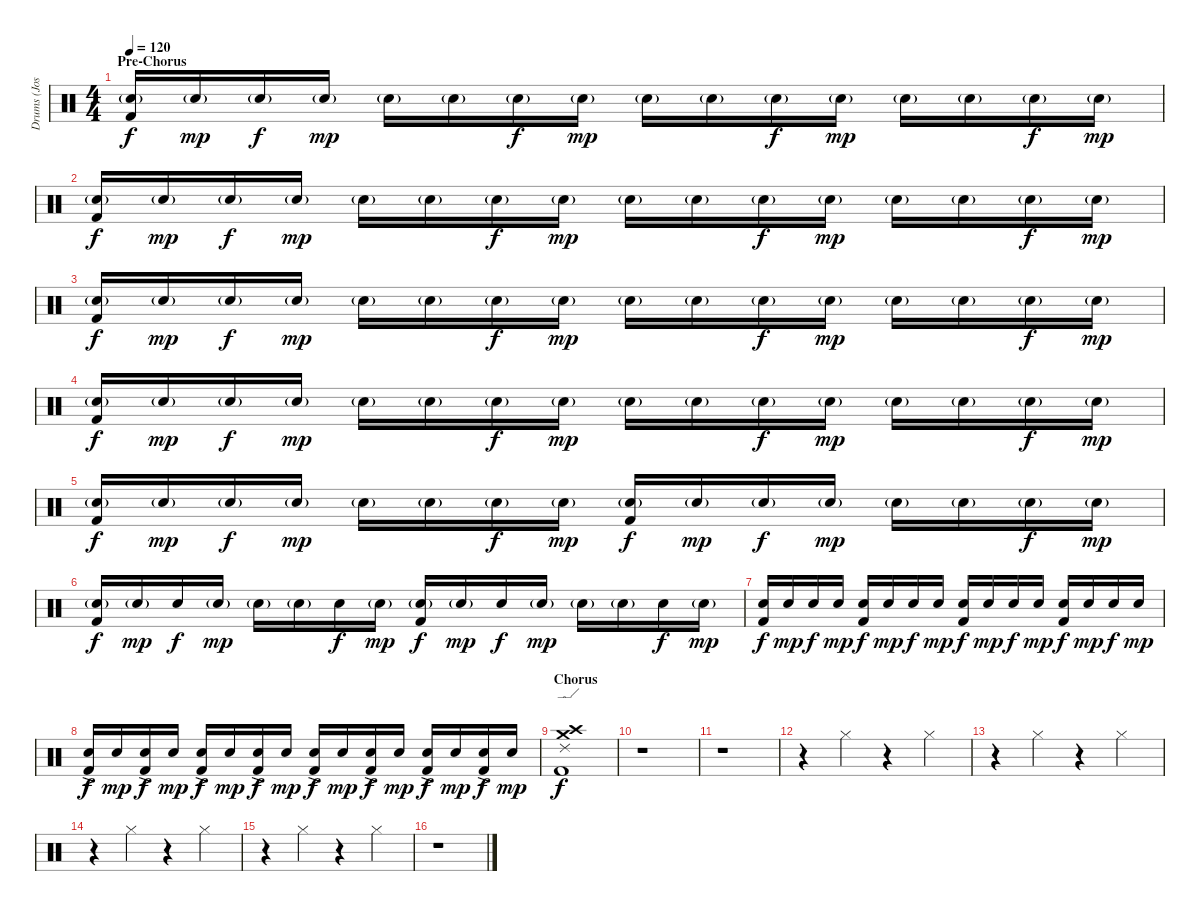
\track ("Drums (Josh Dun)" "Drums (Jos") {instrument percussion}
\staff {score}
\articulation defaults
\ts (4 4)
\section ("" "Pre-Chorus")
\tempo 120
\clef neutral
\ks c
("Snare (hit) 2"{g} "Kick (hit) 2").16{dy f} "Snare (hit) 2"{g}.16{dy mp} "Electric Snare (hit)"{g}.16{dy f} "Snare (hit) 2"{g}.16{dy mp} "Snare (hit) 2"{g}.16 "Snare (hit) 2"{g}.16 "Electric Snare (hit)"{g}.16{dy f} "Snare (hit) 2"{g}.16{dy mp} "Snare (hit) 2"{g}.16 "Snare (hit) 2"{g}.16 "Electric Snare (hit)"{g}.16{dy f} "Snare (hit) 2"{g}.16{dy mp} "Snare (hit) 2"{g}.16 "Snare (hit) 2"{g}.16 "Electric Snare (hit)"{g}.16{dy f} "Snare (hit) 2"{g}.16{dy mp} |
("Snare (hit) 2"{g} "Kick (hit) 2").16{dy f} "Snare (hit) 2"{g}.16{dy mp} "Electric Snare (hit)"{g}.16{dy f} "Snare (hit) 2"{g}.16{dy mp} "Snare (hit) 2"{g}.16 "Snare (hit) 2"{g}.16 "Electric Snare (hit)"{g}.16{dy f} "Snare (hit) 2"{g}.16{dy mp} "Snare (hit) 2"{g}.16 "Snare (hit) 2"{g}.16 "Electric Snare (hit)"{g}.16{dy f} "Snare (hit) 2"{g}.16{dy mp} "Snare (hit) 2"{g}.16 "Snare (hit) 2"{g}.16 "Electric Snare (hit)"{g}.16{dy f} "Snare (hit) 2"{g}.16{dy mp} |
("Snare (hit) 2"{g} "Kick (hit) 2").16{dy f} "Snare (hit) 2"{g}.16{dy mp} "Electric Snare (hit)"{g}.16{dy f} "Snare (hit) 2"{g}.16{dy mp} "Snare (hit) 2"{g}.16 "Snare (hit) 2"{g}.16 "Electric Snare (hit)"{g}.16{dy f} "Snare (hit) 2"{g}.16{dy mp} "Snare (hit) 2"{g}.16 "Snare (hit) 2"{g}.16 "Electric Snare (hit)"{g}.16{dy f} "Snare (hit) 2"{g}.16{dy mp} "Snare (hit) 2"{g}.16 "Snare (hit) 2"{g}.16 "Electric Snare (hit)"{g}.16{dy f} "Snare (hit) 2"{g}.16{dy mp} |
("Snare (hit) 2"{g} "Kick (hit) 2").16{dy f} "Snare (hit) 2"{g}.16{dy mp} "Electric Snare (hit)"{g}.16{dy f} "Snare (hit) 2"{g}.16{dy mp} "Snare (hit) 2"{g}.16 "Snare (hit) 2"{g}.16 "Electric Snare (hit)"{g}.16{dy f} "Snare (hit) 2"{g}.16{dy mp} "Snare (hit) 2"{g}.16 "Snare (hit) 2"{g}.16 "Electric Snare (hit)"{g}.16{dy f} "Snare (hit) 2"{g}.16{dy mp} "Snare (hit) 2"{g}.16 "Snare (hit) 2"{g}.16 "Electric Snare (hit)"{g}.16{dy f} "Snare (hit) 2"{g}.16{dy mp} |
("Snare (hit) 2"{g} "Kick (hit) 2").16{dy f} "Snare (hit) 2"{g}.16{dy mp} "Electric Snare (hit)"{g}.16{dy f} "Snare (hit) 2"{g}.16{dy mp} "Snare (hit) 2"{g}.16 "Snare (hit) 2"{g}.16 "Electric Snare (hit)"{g}.16{dy f} "Snare (hit) 2"{g}.16{dy mp} ("Snare (hit) 2"{g} "Kick (hit) 2").16{dy f} "Snare (hit) 2"{g}.16{dy mp} "Electric Snare (hit)"{g}.16{dy f} "Snare (hit) 2"{g}.16{dy mp} "Snare (hit) 2"{g}.16 "Snare (hit) 2"{g}.16 "Electric Snare (hit)"{g}.16{dy f} "Snare (hit) 2"{g}.16{dy mp} |
("Snare (hit) 2"{g} "Kick (hit) 2").16{dy f} "Snare (hit) 2"{g}.16{dy mp} "Electric Snare (hit)".16{dy f} "Snare (hit) 2"{g}.16{dy mp} "Snare (hit) 2"{g}.16 "Snare (hit) 2"{g}.16 "Electric Snare (hit)".16{dy f} "Snare (hit) 2"{g}.16{dy mp} ("Snare (hit) 2"{g} "Kick (hit) 2").16{dy f} "Snare (hit) 2"{g}.16{dy mp} "Electric Snare (hit)".16{dy f} "Snare (hit) 2"{g}.16{dy mp} "Snare (hit) 2"{g}.16 "Snare (hit) 2"{g}.16 "Electric Snare (hit)".16{dy f} "Snare (hit) 2"{g}.16{dy mp} |
("Snare (hit) 2" "Kick (hit) 2").16{dy f} "Snare (hit) 2".16{dy mp} "Electric Snare (hit)".16{dy f} "Snare (hit) 2".16{dy mp} ("Snare (hit) 2" "Kick (hit) 2").16{dy f} "Snare (hit) 2".16{dy mp} "Electric Snare (hit)".16{dy f} "Snare (hit) 2".16{dy mp} ("Snare (hit) 2" "Kick (hit) 2").16{dy f} "Snare (hit) 2".16{dy mp} "Electric Snare (hit)".16{dy f} "Snare (hit) 2".16{dy mp} ("Snare (hit) 2" "Kick (hit) 2").16{dy f} "Snare (hit) 2".16{dy mp} "Electric Snare (hit)".16{dy f} "Snare (hit) 2".16{dy mp} |
("Snare (hit) 2" "Kick (hit) 2"{ac}).16{dy f} "Snare (hit) 2".16{dy mp} ("Electric Snare (hit)"{ac} "Kick (hit) 2").16{dy f} "Snare (hit) 2".16{dy mp} ("Snare (hit) 2" "Kick (hit) 2"{ac}).16{dy f} "Snare (hit) 2".16{dy mp} ("Electric Snare (hit)"{ac} "Kick (hit) 2").16{dy f} "Snare (hit) 2".16{dy mp} ("Snare (hit) 2" "Kick (hit) 2"{ac}).16{dy f} "Snare (hit) 2".16{dy mp} ("Electric Snare (hit)"{ac} "Kick (hit) 2").16{dy f} "Snare (hit) 2".16{dy mp} ("Snare (hit) 2" "Kick (hit) 2"{ac}).16{dy f} "Snare (hit) 2".16{dy mp} ("Electric Snare (hit)"{ac} "Kick (hit) 2").16{dy f} "Snare (hit) 2".16{dy mp} |
\section ("" "Chorus")
("Crash medium (hit)" "Crash high (hit)" "Ride (edge) 2" "Kick (hit) 2").1{dy f} |
r.1 |
r.1 |
r.4 "Hi-Hat (closed)".4 r.4 "Hi-Hat (closed)".4 |
r.4 "Hi-Hat (closed)".4 r.4 "Hi-Hat (closed)".4 |
r.4 "Hi-Hat (closed)".4 r.4 "Hi-Hat (closed)".4 |
r.4 "Hi-Hat (closed)".4 r.4 "Hi-Hat (closed)".4 |
r.1
